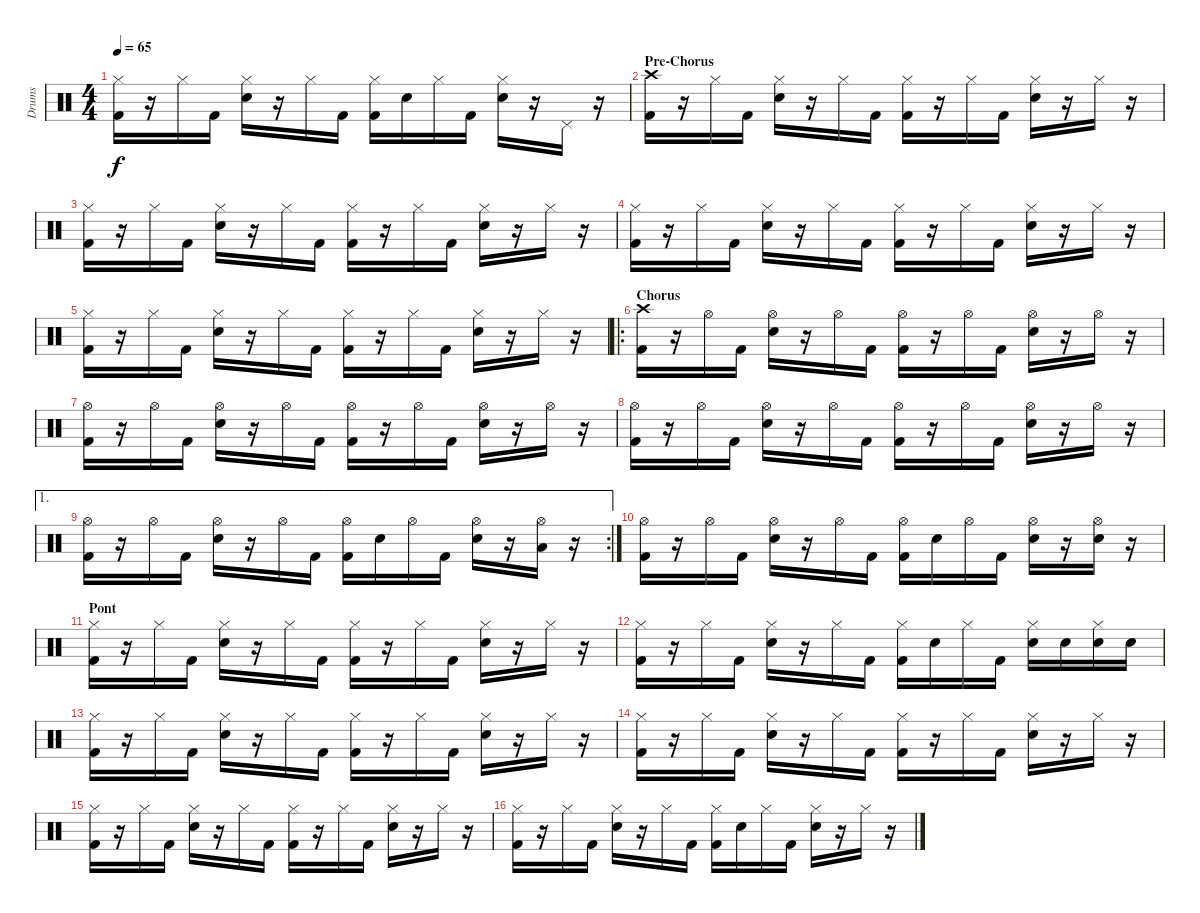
\track ("Drums" "Drums") {instrument percussion}
\staff {score}
\articulation defaults
\ts (4 4)
\tempo 65
\clef neutral
\ks c
("Hi-Hat (closed)" "Kick (hit) 2").16{dy f} r.16 "Hi-Hat (closed)".16 "Kick (hit) 2".16 ("Hi-Hat (closed)" "Snare (hit) 2").16 r.16 "Hi-Hat (closed)".16 "Kick (hit) 2".16 ("Hi-Hat (closed)" "Kick (hit) 2").16 "Snare (hit) 2".16 "Hi-Hat (closed)".16 "Kick (hit) 2".16 ("Hi-Hat (closed)" "Snare (hit) 2").16 r.16 "Pedal Hi-Hat (hit)".16 r.16 |
\section ("" "Pre-Chorus")
("Crash high (hit)" "Kick (hit) 2").16 r.16 "Hi-Hat (closed)".16 "Kick (hit) 2".16 ("Hi-Hat (closed)" "Snare (hit) 2").16 r.16 "Hi-Hat (closed)".16 "Kick (hit) 2".16 ("Hi-Hat (closed)" "Kick (hit) 2").16 r.16 "Hi-Hat (closed)".16 "Kick (hit) 2".16 ("Hi-Hat (closed)" "Snare (hit) 2").16 r.16 "Hi-Hat (closed)".16 r.16 |
("Hi-Hat (closed)" "Kick (hit) 2").16 r.16 "Hi-Hat (closed)".16 "Kick (hit) 2".16 ("Hi-Hat (closed)" "Snare (hit) 2").16 r.16 "Hi-Hat (closed)".16 "Kick (hit) 2".16 ("Hi-Hat (closed)" "Kick (hit) 2").16 r.16 "Hi-Hat (closed)".16 "Kick (hit) 2".16 ("Hi-Hat (closed)" "Snare (hit) 2").16 r.16 "Hi-Hat (closed)".16 r.16 |
("Hi-Hat (closed)" "Kick (hit) 2").16 r.16 "Hi-Hat (closed)".16 "Kick (hit) 2".16 ("Hi-Hat (closed)" "Snare (hit) 2").16 r.16 "Hi-Hat (closed)".16 "Kick (hit) 2".16 ("Hi-Hat (closed)" "Kick (hit) 2").16 r.16 "Hi-Hat (closed)".16 "Kick (hit) 2".16 ("Hi-Hat (closed)" "Snare (hit) 2").16 r.16 "Hi-Hat (closed)".16 r.16 |
("Hi-Hat (closed)" "Kick (hit) 2").16 r.16 "Hi-Hat (closed)".16 "Kick (hit) 2".16 ("Hi-Hat (closed)" "Snare (hit) 2").16 r.16 "Hi-Hat (closed)".16 "Kick (hit) 2".16 ("Hi-Hat (closed)" "Kick (hit) 2").16 r.16 "Hi-Hat (closed)".16 "Kick (hit) 2".16 ("Hi-Hat (closed)" "Snare (hit) 2").16 r.16 "Hi-Hat (closed)".16 r.16 |
\ro
\section ("" "Chorus")
("Crash high (hit)" "Kick (hit) 2").16 r.16 "Hi-Hat (open)".16 "Kick (hit) 2".16 ("Hi-Hat (open)" "Snare (hit) 2").16 r.16 "Hi-Hat (open)".16 "Kick (hit) 2".16 ("Hi-Hat (open)" "Kick (hit) 2").16 r.16 "Hi-Hat (open)".16 "Kick (hit) 2".16 ("Hi-Hat (open)" "Snare (hit) 2").16 r.16 "Hi-Hat (open)".16 r.16 |
("Hi-Hat (open)" "Kick (hit) 2").16 r.16 "Hi-Hat (open)".16 "Kick (hit) 2".16 ("Hi-Hat (open)" "Snare (hit) 2").16 r.16 "Hi-Hat (open)".16 "Kick (hit) 2".16 ("Hi-Hat (open)" "Kick (hit) 2").16 r.16 "Hi-Hat (open)".16 "Kick (hit) 2".16 ("Hi-Hat (open)" "Snare (hit) 2").16 r.16 "Hi-Hat (open)".16 r.16 |
("Hi-Hat (open)" "Kick (hit) 2").16 r.16 "Hi-Hat (open)".16 "Kick (hit) 2".16 ("Hi-Hat (open)" "Snare (hit) 2").16 r.16 "Hi-Hat (open)".16 "Kick (hit) 2".16 ("Hi-Hat (open)" "Kick (hit) 2").16 r.16 "Hi-Hat (open)".16 "Kick (hit) 2".16 ("Hi-Hat (open)" "Snare (hit) 2").16 r.16 "Hi-Hat (open)".16 r.16 |
\ae 1
\rc 2
("Hi-Hat (open)" "Kick (hit) 2").16 r.16 "Hi-Hat (open)".16 "Kick (hit) 2".16 ("Hi-Hat (open)" "Snare (hit) 2").16 r.16 "Hi-Hat (open)".16 "Kick (hit) 2".16 ("Hi-Hat (open)" "Kick (hit) 2").16 "Snare (hit) 2".16 "Hi-Hat (open)".16 "Kick (hit) 2".16 ("Hi-Hat (open)" "Snare (hit) 2").16 r.16 ("Hi-Hat (open)" "Low Tom (hit)").16 r.16 |
("Hi-Hat (open)" "Kick (hit) 2").16 r.16 "Hi-Hat (open)".16 "Kick (hit) 2".16 ("Hi-Hat (open)" "Snare (hit) 2").16 r.16 "Hi-Hat (open)".16 "Kick (hit) 2".16 ("Hi-Hat (open)" "Kick (hit) 2").16 "Snare (hit) 2".16 "Hi-Hat (open)".16 "Kick (hit) 2".16 ("Hi-Hat (open)" "Snare (hit) 2").16 r.16 ("Hi-Hat (open)" "Snare (hit) 2").16 r.16 |
\section ("" "Pont")
("Hi-Hat (closed)" "Kick (hit) 2").16 r.16 "Hi-Hat (closed)".16 "Kick (hit) 2".16 ("Hi-Hat (closed)" "Snare (hit) 2").16 r.16 "Hi-Hat (closed)".16 "Kick (hit) 2".16 ("Hi-Hat (closed)" "Kick (hit) 2").16 r.16 "Hi-Hat (closed)".16 "Kick (hit) 2".16 ("Hi-Hat (closed)" "Snare (hit) 2").16 r.16 "Hi-Hat (closed)".16 r.16 |
("Hi-Hat (closed)" "Kick (hit) 2").16 r.16 "Hi-Hat (closed)".16 "Kick (hit) 2".16 ("Hi-Hat (closed)" "Snare (hit) 2").16 r.16 "Hi-Hat (closed)".16 "Kick (hit) 2".16 ("Hi-Hat (closed)" "Kick (hit) 2").16 "Snare (hit) 2".16 "Hi-Hat (closed)".16 "Kick (hit) 2".16 ("Hi-Hat (closed)" "Snare (hit) 2").16 "Snare (hit) 2".16 ("Hi-Hat (closed)" "Snare (hit) 2").16 "Snare (hit) 2".16 |
("Hi-Hat (closed)" "Kick (hit) 2").16 r.16 "Hi-Hat (closed)".16 "Kick (hit) 2".16 ("Hi-Hat (closed)" "Snare (hit) 2").16 r.16 "Hi-Hat (closed)".16 "Kick (hit) 2".16 ("Hi-Hat (closed)" "Kick (hit) 2").16 r.16 "Hi-Hat (closed)".16 "Kick (hit) 2".16 ("Hi-Hat (closed)" "Snare (hit) 2").16 r.16 "Hi-Hat (closed)".16 r.16 |
("Hi-Hat (closed)" "Kick (hit) 2").16 r.16 "Hi-Hat (closed)".16 "Kick (hit) 2".16 ("Hi-Hat (closed)" "Snare (hit) 2").16 r.16 "Hi-Hat (closed)".16 "Kick (hit) 2".16 ("Hi-Hat (closed)" "Kick (hit) 2").16 r.16 "Hi-Hat (closed)".16 "Kick (hit) 2".16 ("Hi-Hat (closed)" "Snare (hit) 2").16 r.16 "Hi-Hat (closed)".16 r.16 |
("Hi-Hat (closed)" "Kick (hit) 2").16 r.16 "Hi-Hat (closed)".16 "Kick (hit) 2".16 ("Hi-Hat (closed)" "Snare (hit) 2").16 r.16 "Hi-Hat (closed)".16 "Kick (hit) 2".16 ("Hi-Hat (closed)" "Kick (hit) 2").16 r.16 "Hi-Hat (closed)".16 "Kick (hit) 2".16 ("Hi-Hat (closed)" "Snare (hit) 2").16 r.16 "Hi-Hat (closed)".16 r.16 |
("Hi-Hat (closed)" "Kick (hit) 2").16 r.16 "Hi-Hat (closed)".16 "Kick (hit) 2".16 ("Hi-Hat (closed)" "Snare (hit) 2").16 r.16 "Hi-Hat (closed)".16 "Kick (hit) 2".16 ("Hi-Hat (closed)" "Kick (hit) 2").16 "Snare (hit) 2".16 "Hi-Hat (closed)".16 "Kick (hit) 2".16 ("Hi-Hat (closed)" "Snare (hit) 2").16 r.16 "Hi-Hat (closed)".16 r.16
